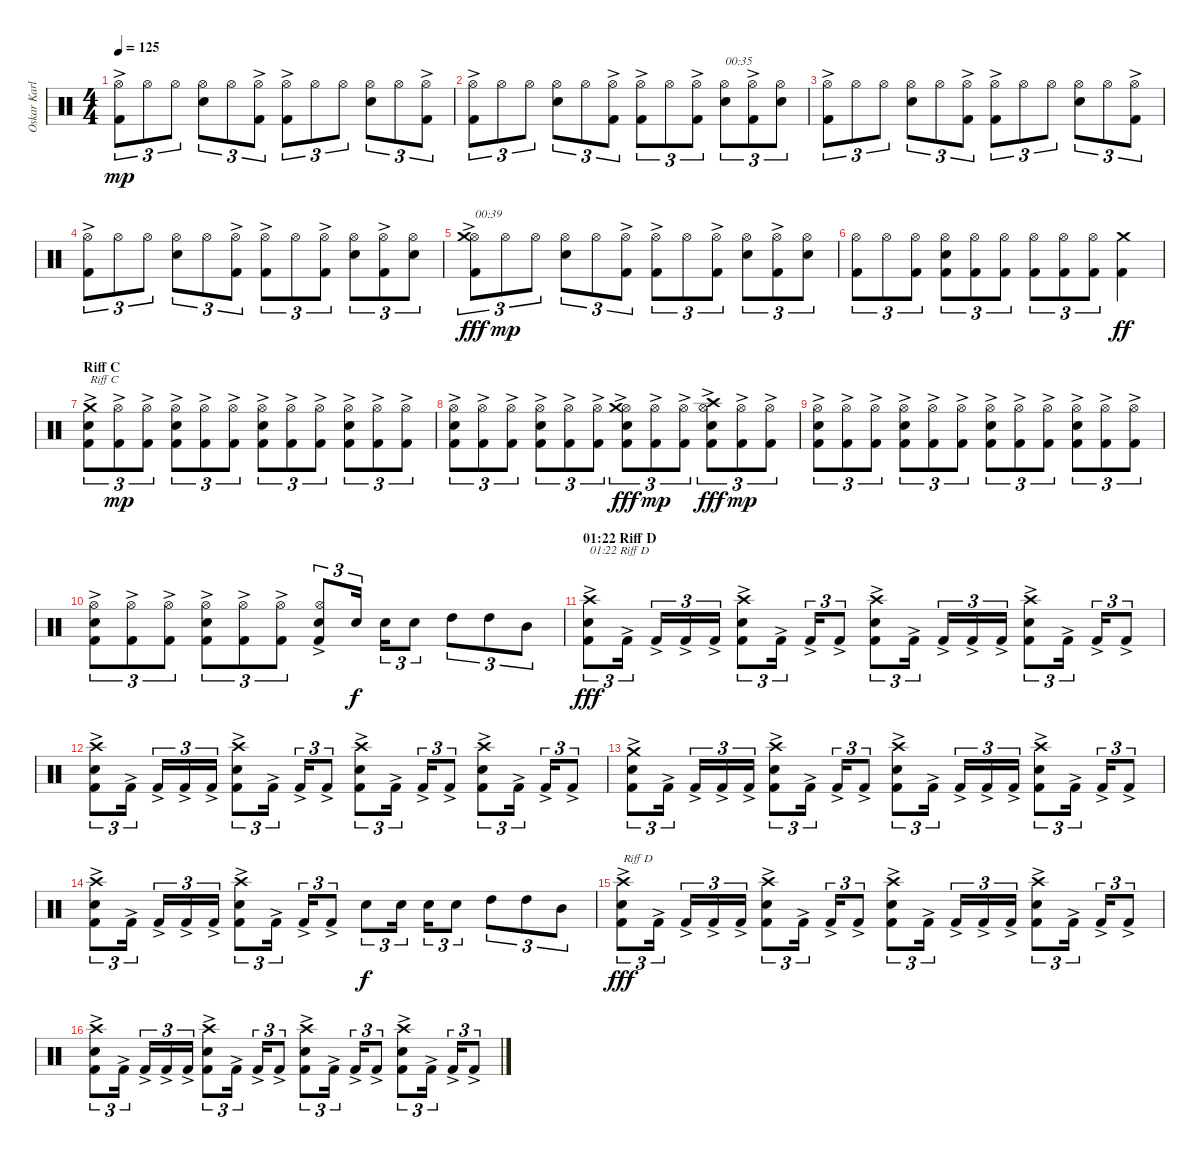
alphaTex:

\track ("Oskar Karlsson" "Oskar Karl") {instrument percussion}
\staff {score}
\articulation defaults
\ts (4 4)
\tempo 125
\clef neutral
\ks c
("Kick (hit) 2"{ac} "Hi-Hat (open)").8{tu (3 2) dy mp} "Hi-Hat (open)".8{tu (3 2)} "Hi-Hat (open)".8{tu (3 2)} ("Electric Snare (hit)" "Hi-Hat (open)").8{tu (3 2)} "Hi-Hat (open)".8{tu (3 2)} ("Kick (hit) 2"{ac} "Hi-Hat (open)").8{tu (3 2)} ("Kick (hit) 2"{ac} "Hi-Hat (open)").8{tu (3 2)} "Hi-Hat (open)".8{tu (3 2)} "Hi-Hat (open)".8{tu (3 2)} ("Electric Snare (hit)" "Hi-Hat (open)").8{tu (3 2)} "Hi-Hat (open)".8{tu (3 2)} ("Kick (hit) 2"{ac} "Hi-Hat (open)").8{tu (3 2)} |
("Kick (hit) 2"{ac} "Hi-Hat (open)").8{tu (3 2)} "Hi-Hat (open)".8{tu (3 2)} "Hi-Hat (open)".8{tu (3 2)} ("Electric Snare (hit)" "Hi-Hat (open)").8{tu (3 2)} "Hi-Hat (open)".8{tu (3 2)} ("Kick (hit) 2"{ac} "Hi-Hat (open)").8{tu (3 2)} ("Kick (hit) 2"{ac} "Hi-Hat (open)").8{tu (3 2)} "Hi-Hat (open)".8{tu (3 2)} ("Kick (hit) 2"{ac} "Hi-Hat (open)").8{tu (3 2)} ("Electric Snare (hit)" "Hi-Hat (open)").8{tu (3 2) txt "00:35"} ("Kick (hit) 2"{ac} "Hi-Hat (open)").8{tu (3 2)} ("Electric Snare (hit)" "Hi-Hat (open)").8{tu (3 2)} |
("Kick (hit) 2"{ac} "Hi-Hat (open)").8{tu (3 2)} "Hi-Hat (open)".8{tu (3 2)} "Hi-Hat (open)".8{tu (3 2)} ("Electric Snare (hit)" "Hi-Hat (open)").8{tu (3 2)} "Hi-Hat (open)".8{tu (3 2)} ("Kick (hit) 2"{ac} "Hi-Hat (open)").8{tu (3 2)} ("Kick (hit) 2"{ac} "Hi-Hat (open)").8{tu (3 2)} "Hi-Hat (open)".8{tu (3 2)} "Hi-Hat (open)".8{tu (3 2)} ("Electric Snare (hit)" "Hi-Hat (open)").8{tu (3 2)} "Hi-Hat (open)".8{tu (3 2)} ("Kick (hit) 2"{ac} "Hi-Hat (open)").8{tu (3 2)} |
("Kick (hit) 2"{ac} "Hi-Hat (open)").8{tu (3 2)} "Hi-Hat (open)".8{tu (3 2)} "Hi-Hat (open)".8{tu (3 2)} ("Electric Snare (hit)" "Hi-Hat (open)").8{tu (3 2)} "Hi-Hat (open)".8{tu (3 2)} ("Kick (hit) 2"{ac} "Hi-Hat (open)").8{tu (3 2)} ("Kick (hit) 2"{ac} "Hi-Hat (open)").8{tu (3 2)} "Hi-Hat (open)".8{tu (3 2)} ("Kick (hit) 2"{ac} "Hi-Hat (open)").8{tu (3 2)} ("Electric Snare (hit)" "Hi-Hat (open)").8{tu (3 2)} ("Kick (hit) 2"{ac} "Hi-Hat (open)").8{tu (3 2)} ("Electric Snare (hit)" "Hi-Hat (open)").8{tu (3 2)} |
("Kick (hit) 2"{ac} "Hi-Hat (open)" "Crash medium (hit)"{ac}).8{tu (3 2) txt "00:39" dy fff} "Hi-Hat (open)".8{tu (3 2) dy mp} "Hi-Hat (open)".8{tu (3 2)} ("Electric Snare (hit)" "Hi-Hat (open)").8{tu (3 2)} "Hi-Hat (open)".8{tu (3 2)} ("Kick (hit) 2"{ac} "Hi-Hat (open)").8{tu (3 2)} ("Kick (hit) 2"{ac} "Hi-Hat (open)").8{tu (3 2)} "Hi-Hat (open)".8{tu (3 2)} ("Kick (hit) 2"{ac} "Hi-Hat (open)").8{tu (3 2)} ("Electric Snare (hit)" "Hi-Hat (open)").8{tu (3 2)} ("Kick (hit) 2"{ac} "Hi-Hat (open)").8{tu (3 2)} ("Electric Snare (hit)" "Hi-Hat (open)").8{tu (3 2)} |
("Kick (hit) 2" "Hi-Hat (open)").8{tu (3 2)} "Hi-Hat (open)".8{tu (3 2)} ("Kick (hit) 2" "Hi-Hat (open)").8{tu (3 2)} ("Kick (hit) 2" "Electric Snare (hit)" "Hi-Hat (open)").8{tu (3 2)} ("Kick (hit) 2" "Hi-Hat (open)").8{tu (3 2)} ("Kick (hit) 2" "Hi-Hat (open)").8{tu (3 2)} ("Kick (hit) 2" "Hi-Hat (open)").8{tu (3 2)} ("Kick (hit) 2" "Hi-Hat (open)").8{tu (3 2)} ("Kick (hit) 2" "Hi-Hat (open)").8{tu (3 2)} ("Kick (hit) 2" "Crash medium (hit)").4{dy ff} |
\section ("" "Riff C")
("Kick (hit) 2"{ac} "Electric Snare (hit)" "Crash medium (hit)"{ac}).8{tu (3 2) txt "Riff C"} ("Kick (hit) 2"{ac} "Hi-Hat (open)").8{tu (3 2) dy mp} ("Kick (hit) 2"{ac} "Hi-Hat (open)").8{tu (3 2)} ("Kick (hit) 2"{ac} "Electric Snare (hit)" "Hi-Hat (open)").8{tu (3 2)} ("Kick (hit) 2"{ac} "Hi-Hat (open)").8{tu (3 2)} ("Kick (hit) 2"{ac} "Hi-Hat (open)").8{tu (3 2)} ("Kick (hit) 2"{ac} "Electric Snare (hit)" "Hi-Hat (open)").8{tu (3 2)} ("Kick (hit) 2"{ac} "Hi-Hat (open)").8{tu (3 2)} ("Kick (hit) 2"{ac} "Hi-Hat (open)").8{tu (3 2)} ("Kick (hit) 2"{ac} "Electric Snare (hit)" "Hi-Hat (open)").8{tu (3 2)} ("Kick (hit) 2"{ac} "Hi-Hat (open)").8{tu (3 2)} ("Kick (hit) 2"{ac} "Hi-Hat (open)").8{tu (3 2)} |
("Kick (hit) 2"{ac} "Electric Snare (hit)" "Hi-Hat (open)").8{tu (3 2)} ("Kick (hit) 2"{ac} "Hi-Hat (open)").8{tu (3 2)} ("Kick (hit) 2"{ac} "Hi-Hat (open)").8{tu (3 2)} ("Kick (hit) 2"{ac} "Electric Snare (hit)" "Hi-Hat (open)").8{tu (3 2)} ("Kick (hit) 2"{ac} "Hi-Hat (open)").8{tu (3 2)} ("Kick (hit) 2"{ac} "Hi-Hat (open)").8{tu (3 2)} ("Kick (hit) 2"{ac} "Electric Snare (hit)" "Hi-Hat (open)" "Crash medium (hit)"{ac}).8{tu (3 2) dy fff} ("Kick (hit) 2"{ac} "Hi-Hat (open)").8{tu (3 2) dy mp} ("Kick (hit) 2"{ac} "Hi-Hat (open)").8{tu (3 2)} ("Kick (hit) 2"{ac} "Electric Snare (hit)" "Hi-Hat (open)" "Crash high (hit)"{ac}).8{tu (3 2) dy fff} ("Kick (hit) 2"{ac} "Hi-Hat (open)").8{tu (3 2) dy mp} ("Kick (hit) 2"{ac} "Hi-Hat (open)").8{tu (3 2)} |
("Kick (hit) 2"{ac} "Electric Snare (hit)" "Hi-Hat (open)").8{tu (3 2)} ("Kick (hit) 2"{ac} "Hi-Hat (open)").8{tu (3 2)} ("Kick (hit) 2"{ac} "Hi-Hat (open)").8{tu (3 2)} ("Kick (hit) 2"{ac} "Electric Snare (hit)" "Hi-Hat (open)").8{tu (3 2)} ("Kick (hit) 2"{ac} "Hi-Hat (open)").8{tu (3 2)} ("Kick (hit) 2"{ac} "Hi-Hat (open)").8{tu (3 2)} ("Kick (hit) 2"{ac} "Electric Snare (hit)" "Hi-Hat (open)").8{tu (3 2)} ("Kick (hit) 2"{ac} "Hi-Hat (open)").8{tu (3 2)} ("Kick (hit) 2"{ac} "Hi-Hat (open)").8{tu (3 2)} ("Kick (hit) 2"{ac} "Electric Snare (hit)" "Hi-Hat (open)").8{tu (3 2)} ("Kick (hit) 2"{ac} "Hi-Hat (open)").8{tu (3 2)} ("Kick (hit) 2"{ac} "Hi-Hat (open)").8{tu (3 2)} |
("Kick (hit) 2"{ac} "Electric Snare (hit)" "Hi-Hat (open)").8{tu (3 2)} ("Kick (hit) 2"{ac} "Hi-Hat (open)").8{tu (3 2)} ("Kick (hit) 2"{ac} "Hi-Hat (open)").8{tu (3 2)} ("Kick (hit) 2"{ac} "Electric Snare (hit)" "Hi-Hat (open)").8{tu (3 2)} ("Kick (hit) 2"{ac} "Hi-Hat (open)").8{tu (3 2)} ("Kick (hit) 2"{ac} "Hi-Hat (open)").8{tu (3 2)} ("Kick (hit) 2"{ac} "Electric Snare (hit)" "Hi-Hat (open)").8{tu (3 2)} "Electric Snare (hit)".16{tu (3 2) dy f} "Electric Snare (hit)".16{tu (3 2)} "Electric Snare (hit)".8{tu (3 2)} "High Tom (hit)".8{tu (3 2)} "High Tom (hit)".8{tu (3 2)} "Mid Tom (hit)".8{tu (3 2)} |
\section ("" "01:22 Riff D")
("Kick (hit) 2"{ac} "Electric Snare (hit)" "Crash high (hit)").8{tu (3 2) txt "01:22 Riff D" dy fff} "Kick (hit) 2"{ac}.16{tu (3 2)} "Kick (hit) 2"{ac}.16{tu (3 2)} "Kick (hit) 2"{ac}.16{tu (3 2)} "Kick (hit) 2"{ac}.16{tu (3 2)} ("Kick (hit) 2"{ac} "Electric Snare (hit)" "Crash high (hit)").8{tu (3 2)} "Kick (hit) 2"{ac}.16{tu (3 2)} "Kick (hit) 2"{ac}.16{tu (3 2)} "Kick (hit) 2"{ac}.8{tu (3 2)} ("Kick (hit) 2"{ac} "Electric Snare (hit)" "Crash high (hit)").8{tu (3 2)} "Kick (hit) 2"{ac}.16{tu (3 2)} "Kick (hit) 2"{ac}.16{tu (3 2)} "Kick (hit) 2"{ac}.16{tu (3 2)} "Kick (hit) 2"{ac}.16{tu (3 2)} ("Kick (hit) 2"{ac} "Electric Snare (hit)" "Crash high (hit)").8{tu (3 2)} "Kick (hit) 2"{ac}.16{tu (3 2)} "Kick (hit) 2"{ac}.16{tu (3 2)} "Kick (hit) 2"{ac}.8{tu (3 2)} |
("Kick (hit) 2"{ac} "Electric Snare (hit)" "Crash high (hit)").8{tu (3 2)} "Kick (hit) 2"{ac}.16{tu (3 2)} "Kick (hit) 2"{ac}.16{tu (3 2)} "Kick (hit) 2"{ac}.16{tu (3 2)} "Kick (hit) 2"{ac}.16{tu (3 2)} ("Kick (hit) 2"{ac} "Electric Snare (hit)" "Crash high (hit)").8{tu (3 2)} "Kick (hit) 2"{ac}.16{tu (3 2)} "Kick (hit) 2"{ac}.16{tu (3 2)} "Kick (hit) 2"{ac}.8{tu (3 2)} ("Kick (hit) 2"{ac} "Electric Snare (hit)" "Crash high (hit)").8{tu (3 2)} "Kick (hit) 2"{ac}.16{tu (3 2)} "Kick (hit) 2"{ac}.16{tu (3 2)} "Kick (hit) 2"{ac}.8{tu (3 2)} ("Kick (hit) 2"{ac} "Electric Snare (hit)" "Crash high (hit)").8{tu (3 2)} "Kick (hit) 2"{ac}.16{tu (3 2)} "Kick (hit) 2"{ac}.16{tu (3 2)} "Kick (hit) 2"{ac}.8{tu (3 2)} |
("Kick (hit) 2"{ac} "Electric Snare (hit)" "Crash medium (hit)"{ac}).8{tu (3 2)} "Kick (hit) 2"{ac}.16{tu (3 2)} "Kick (hit) 2"{ac}.16{tu (3 2)} "Kick (hit) 2"{ac}.16{tu (3 2)} "Kick (hit) 2"{ac}.16{tu (3 2)} ("Kick (hit) 2"{ac} "Electric Snare (hit)" "Crash high (hit)").8{tu (3 2)} "Kick (hit) 2"{ac}.16{tu (3 2)} "Kick (hit) 2"{ac}.16{tu (3 2)} "Kick (hit) 2"{ac}.8{tu (3 2)} ("Kick (hit) 2"{ac} "Electric Snare (hit)" "Crash high (hit)").8{tu (3 2)} "Kick (hit) 2"{ac}.16{tu (3 2)} "Kick (hit) 2"{ac}.16{tu (3 2)} "Kick (hit) 2"{ac}.16{tu (3 2)} "Kick (hit) 2"{ac}.16{tu (3 2)} ("Kick (hit) 2"{ac} "Electric Snare (hit)" "Crash high (hit)").8{tu (3 2)} "Kick (hit) 2"{ac}.16{tu (3 2)} "Kick (hit) 2"{ac}.16{tu (3 2)} "Kick (hit) 2"{ac}.8{tu (3 2)} |
("Kick (hit) 2"{ac} "Electric Snare (hit)" "Crash high (hit)").8{tu (3 2)} "Kick (hit) 2"{ac}.16{tu (3 2)} "Kick (hit) 2"{ac}.16{tu (3 2)} "Kick (hit) 2"{ac}.16{tu (3 2)} "Kick (hit) 2"{ac}.16{tu (3 2)} ("Kick (hit) 2"{ac} "Electric Snare (hit)" "Crash high (hit)").8{tu (3 2)} "Kick (hit) 2"{ac}.16{tu (3 2)} "Kick (hit) 2"{ac}.16{tu (3 2)} "Kick (hit) 2"{ac}.8{tu (3 2)} "Electric Snare (hit)".8{tu (3 2) dy f} "Electric Snare (hit)".16{tu (3 2)} "Electric Snare (hit)".16{tu (3 2)} "Electric Snare (hit)".8{tu (3 2)} "High Tom (hit)".8{tu (3 2)} "High Tom (hit)".8{tu (3 2)} "Mid Tom (hit)".8{tu (3 2)} |
("Kick (hit) 2"{ac} "Electric Snare (hit)" "Crash high (hit)").8{tu (3 2) txt "Riff D" dy fff} "Kick (hit) 2"{ac}.16{tu (3 2)} "Kick (hit) 2"{ac}.16{tu (3 2)} "Kick (hit) 2"{ac}.16{tu (3 2)} "Kick (hit) 2"{ac}.16{tu (3 2)} ("Kick (hit) 2"{ac} "Electric Snare (hit)" "Crash high (hit)").8{tu (3 2)} "Kick (hit) 2"{ac}.16{tu (3 2)} "Kick (hit) 2"{ac}.16{tu (3 2)} "Kick (hit) 2"{ac}.8{tu (3 2)} ("Kick (hit) 2"{ac} "Electric Snare (hit)" "Crash high (hit)").8{tu (3 2)} "Kick (hit) 2"{ac}.16{tu (3 2)} "Kick (hit) 2"{ac}.16{tu (3 2)} "Kick (hit) 2"{ac}.16{tu (3 2)} "Kick (hit) 2"{ac}.16{tu (3 2)} ("Kick (hit) 2"{ac} "Electric Snare (hit)" "Crash high (hit)").8{tu (3 2)} "Kick (hit) 2"{ac}.16{tu (3 2)} "Kick (hit) 2"{ac}.16{tu (3 2)} "Kick (hit) 2"{ac}.8{tu (3 2)} |
("Kick (hit) 2"{ac} "Electric Snare (hit)" "Crash high (hit)").8{tu (3 2)} "Kick (hit) 2"{ac}.16{tu (3 2)} "Kick (hit) 2"{ac}.16{tu (3 2)} "Kick (hit) 2"{ac}.16{tu (3 2)} "Kick (hit) 2"{ac}.16{tu (3 2)} ("Kick (hit) 2"{ac} "Electric Snare (hit)" "Crash high (hit)").8{tu (3 2)} "Kick (hit) 2"{ac}.16{tu (3 2)} "Kick (hit) 2"{ac}.16{tu (3 2)} "Kick (hit) 2"{ac}.8{tu (3 2)} ("Kick (hit) 2"{ac} "Electric Snare (hit)" "Crash high (hit)").8{tu (3 2)} "Kick (hit) 2"{ac}.16{tu (3 2)} "Kick (hit) 2"{ac}.16{tu (3 2)} "Kick (hit) 2"{ac}.8{tu (3 2)} ("Kick (hit) 2"{ac} "Electric Snare (hit)" "Crash high (hit)").8{tu (3 2)} "Kick (hit) 2"{ac}.16{tu (3 2)} "Kick (hit) 2"{ac}.16{tu (3 2)} "Kick (hit) 2"{ac}.8{tu (3 2)}
